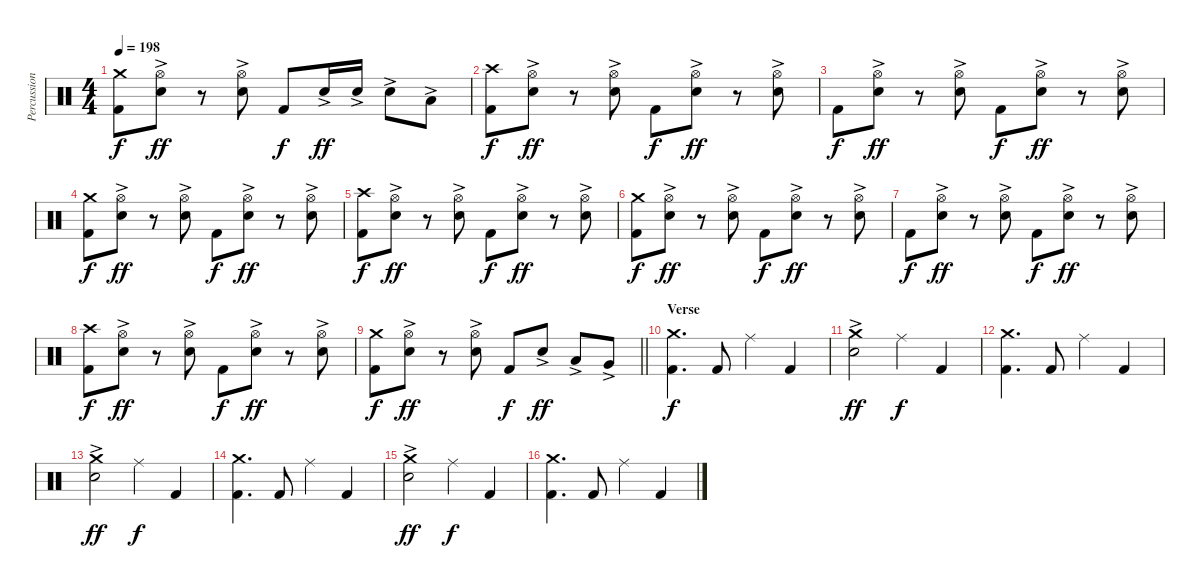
\track ("Percussion" "Percussion") {instrument percussion}
\staff {score}
\articulation defaults
\ts (4 4)
\tempo 198
\clef neutral
\ks c
("Crash medium (hit)" "Kick (hit) 2").8{dy f} ("Hi-Hat (open)" "Electric Snare (hit)"{ac}).8{dy ff} r.8 ("Hi-Hat (open)" "Electric Snare (hit)"{ac}).8 "Kick (hit) 2".8{dy f} "Electric Snare (hit)"{ac}.16{dy ff} "Electric Snare (hit)"{ac}.16 "Electric Snare (hit)"{ac}.8 "Low Tom (hit)"{ac}.8 |
("Crash high (hit)" "Kick (hit) 2").8{dy f} ("Hi-Hat (open)" "Electric Snare (hit)"{ac}).8{dy ff} r.8 ("Hi-Hat (open)" "Electric Snare (hit)"{ac}).8 "Kick (hit) 2".8{dy f} ("Hi-Hat (open)" "Electric Snare (hit)"{ac}).8{dy ff} r.8 ("Hi-Hat (open)" "Electric Snare (hit)"{ac}).8 |
"Kick (hit) 2".8{dy f} ("Hi-Hat (open)" "Electric Snare (hit)"{ac}).8{dy ff} r.8 ("Hi-Hat (open)" "Electric Snare (hit)"{ac}).8 "Kick (hit) 2".8{dy f} ("Hi-Hat (open)" "Electric Snare (hit)"{ac}).8{dy ff} r.8 ("Hi-Hat (open)" "Electric Snare (hit)"{ac}).8 |
("Crash medium (hit)" "Kick (hit) 2").8{dy f} ("Hi-Hat (open)" "Electric Snare (hit)"{ac}).8{dy ff} r.8 ("Hi-Hat (open)" "Electric Snare (hit)"{ac}).8 "Kick (hit) 2".8{dy f} ("Hi-Hat (open)" "Electric Snare (hit)"{ac}).8{dy ff} r.8 ("Hi-Hat (open)" "Electric Snare (hit)"{ac}).8 |
("Crash high (hit)" "Kick (hit) 2").8{dy f} ("Hi-Hat (open)" "Electric Snare (hit)"{ac}).8{dy ff} r.8 ("Hi-Hat (open)" "Electric Snare (hit)"{ac}).8 "Kick (hit) 2".8{dy f} ("Hi-Hat (open)" "Electric Snare (hit)"{ac}).8{dy ff} r.8 ("Hi-Hat (open)" "Electric Snare (hit)"{ac}).8 |
("Crash medium (hit)" "Kick (hit) 2").8{dy f} ("Hi-Hat (open)" "Electric Snare (hit)"{ac}).8{dy ff} r.8 ("Hi-Hat (open)" "Electric Snare (hit)"{ac}).8 "Kick (hit) 2".8{dy f} ("Hi-Hat (open)" "Electric Snare (hit)"{ac}).8{dy ff} r.8 ("Hi-Hat (open)" "Electric Snare (hit)"{ac}).8 |
"Kick (hit) 2".8{dy f} ("Hi-Hat (open)" "Electric Snare (hit)"{ac}).8{dy ff} r.8 ("Hi-Hat (open)" "Electric Snare (hit)"{ac}).8 "Kick (hit) 2".8{dy f} ("Hi-Hat (open)" "Electric Snare (hit)"{ac}).8{dy ff} r.8 ("Hi-Hat (open)" "Electric Snare (hit)"{ac}).8 |
("Crash high (hit)" "Kick (hit) 2").8{dy f} ("Hi-Hat (open)" "Electric Snare (hit)"{ac}).8{dy ff} r.8 ("Hi-Hat (open)" "Electric Snare (hit)"{ac}).8 "Kick (hit) 2".8{dy f} ("Hi-Hat (open)" "Electric Snare (hit)"{ac}).8{dy ff} r.8 ("Hi-Hat (open)" "Electric Snare (hit)"{ac}).8 |
\barLineRight lightlight
("Crash medium (hit)" "Kick (hit) 2").8{dy f} ("Hi-Hat (open)" "Electric Snare (hit)"{ac}).8{dy ff} r.8 ("Hi-Hat (open)" "Electric Snare (hit)"{ac}).8 "Kick (hit) 2".8{dy f} "Electric Snare (hit)"{ac}.8{dy ff} "Low Tom (hit)"{ac}.8 "Very Low Tom (hit)"{ac}.8 |
\section ("" "Verse")
("Crash medium (hit)" "Kick (hit) 2").4{d dy f} "Kick (hit) 2".8 "Ride (middle)".4 "Kick (hit) 2".4 |
("Crash medium (hit)" "Electric Snare (hit)"{ac}).2{dy ff} "Ride (middle)".4{dy f} "Kick (hit) 2".4 |
("Crash medium (hit)" "Kick (hit) 2").4{d} "Kick (hit) 2".8 "Ride (middle)".4 "Kick (hit) 2".4 |
("Crash medium (hit)" "Electric Snare (hit)"{ac}).2{dy ff} "Ride (middle)".4{dy f} "Kick (hit) 2".4 |
("Crash medium (hit)" "Kick (hit) 2").4{d} "Kick (hit) 2".8 "Ride (middle)".4 "Kick (hit) 2".4 |
("Crash medium (hit)" "Electric Snare (hit)"{ac}).2{dy ff} "Ride (middle)".4{dy f} "Kick (hit) 2".4 |
("Crash medium (hit)" "Kick (hit) 2").4{d} "Kick (hit) 2".8 "Ride (middle)".4 "Kick (hit) 2".4
